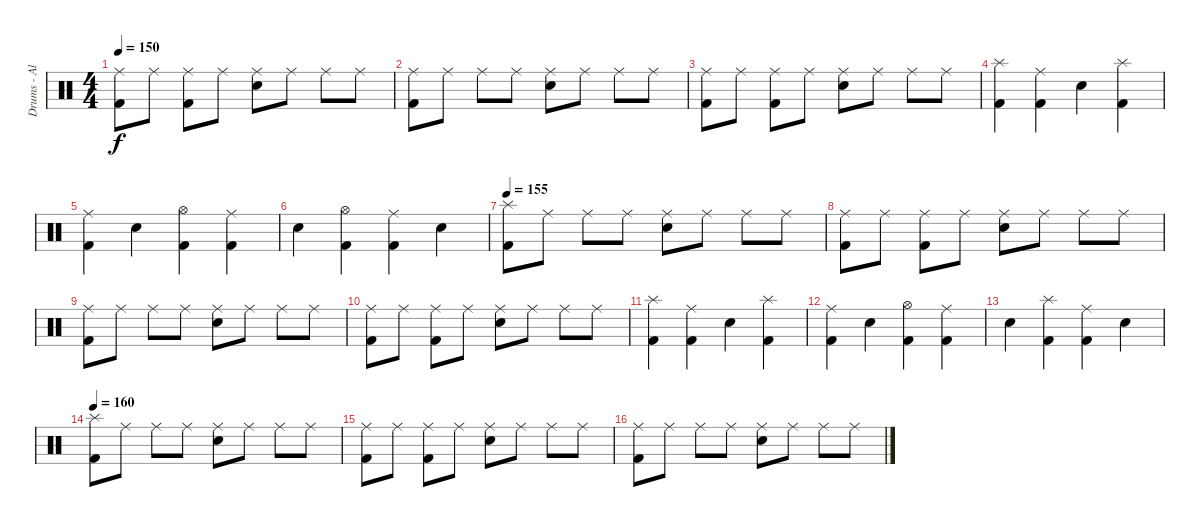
\track ("Drums - Alex Wank" "Drums - Al") {instrument percussion}
\staff {score}
\articulation defaults
\ts (4 4)
\tempo 150
\clef neutral
\ks c
("Ride (middle)" "Kick (hit) 2").8{dy f} "Ride (middle)".8 ("Ride (middle)" "Kick (hit) 2").8 "Ride (middle)".8 ("Ride (middle)" "Electric Snare (hit)").8 "Ride (middle)".8 "Ride (middle)".8 "Ride (middle)".8 |
("Ride (middle)" "Kick (hit) 2").8 "Ride (middle)".8 "Ride (middle)".8 "Ride (middle)".8 ("Ride (middle)" "Electric Snare (hit)").8 "Ride (middle)".8 "Ride (middle)".8 "Ride (middle)".8 |
("Ride (middle)" "Kick (hit) 2").8 "Ride (middle)".8 ("Ride (middle)" "Kick (hit) 2").8 "Ride (middle)".8 ("Ride (middle)" "Electric Snare (hit)").8 "Ride (middle)".8 "Ride (middle)".8 "Ride (middle)".8 |
("Splash (hit)" "Kick (hit) 2").4 ("Ride (middle)" "Kick (hit) 2").4 "Electric Snare (hit)".4 ("Splash (hit)" "Kick (hit) 2").4 |
("Ride (middle)" "Kick (hit) 2").4 "Electric Snare (hit)".4 ("Hi-Hat (open)" "Kick (hit) 2").4 ("Ride (middle)" "Kick (hit) 2").4 |
"Electric Snare (hit)".4 ("Hi-Hat (open)" "Kick (hit) 2").4 ("Ride (middle)" "Kick (hit) 2").4 "Electric Snare (hit)".4 |
\tempo 155
("Splash (hit)" "Kick (hit) 2").8 "Ride (middle)".8 "Ride (middle)".8 "Ride (middle)".8 ("Ride (middle)" "Electric Snare (hit)").8 "Ride (middle)".8 "Ride (middle)".8 "Ride (middle)".8 |
("Ride (middle)" "Kick (hit) 2").8 "Ride (middle)".8 ("Ride (middle)" "Kick (hit) 2").8 "Ride (middle)".8 ("Ride (middle)" "Electric Snare (hit)").8 "Ride (middle)".8 "Ride (middle)".8 "Ride (middle)".8 |
("Ride (middle)" "Kick (hit) 2").8 "Ride (middle)".8 "Ride (middle)".8 "Ride (middle)".8 ("Ride (middle)" "Electric Snare (hit)").8 "Ride (middle)".8 "Ride (middle)".8 "Ride (middle)".8 |
("Ride (middle)" "Kick (hit) 2").8 "Ride (middle)".8 ("Ride (middle)" "Kick (hit) 2").8 "Ride (middle)".8 ("Ride (middle)" "Electric Snare (hit)").8 "Ride (middle)".8 "Ride (middle)".8 "Ride (middle)".8 |
("Splash (hit)" "Kick (hit) 2").4 ("Ride (middle)" "Kick (hit) 2").4 "Electric Snare (hit)".4 ("Splash (hit)" "Kick (hit) 2").4 |
("Ride (middle)" "Kick (hit) 2").4 "Electric Snare (hit)".4 ("Hi-Hat (open)" "Kick (hit) 2").4 ("Ride (middle)" "Kick (hit) 2").4 |
"Electric Snare (hit)".4 ("Splash (hit)" "Kick (hit) 2").4 ("Ride (middle)" "Kick (hit) 2").4 "Electric Snare (hit)".4 |
\tempo 160
("Splash (hit)" "Kick (hit) 2").8 "Ride (middle)".8 "Ride (middle)".8 "Ride (middle)".8 ("Ride (middle)" "Electric Snare (hit)").8 "Ride (middle)".8 "Ride (middle)".8 "Ride (middle)".8 |
("Ride (middle)" "Kick (hit) 2").8 "Ride (middle)".8 ("Ride (middle)" "Kick (hit) 2").8 "Ride (middle)".8 ("Ride (middle)" "Electric Snare (hit)").8 "Ride (middle)".8 "Ride (middle)".8 "Ride (middle)".8 |
("Ride (middle)" "Kick (hit) 2").8 "Ride (middle)".8 "Ride (middle)".8 "Ride (middle)".8 ("Ride (middle)" "Electric Snare (hit)").8 "Ride (middle)".8 "Ride (middle)".8 "Ride (middle)".8
